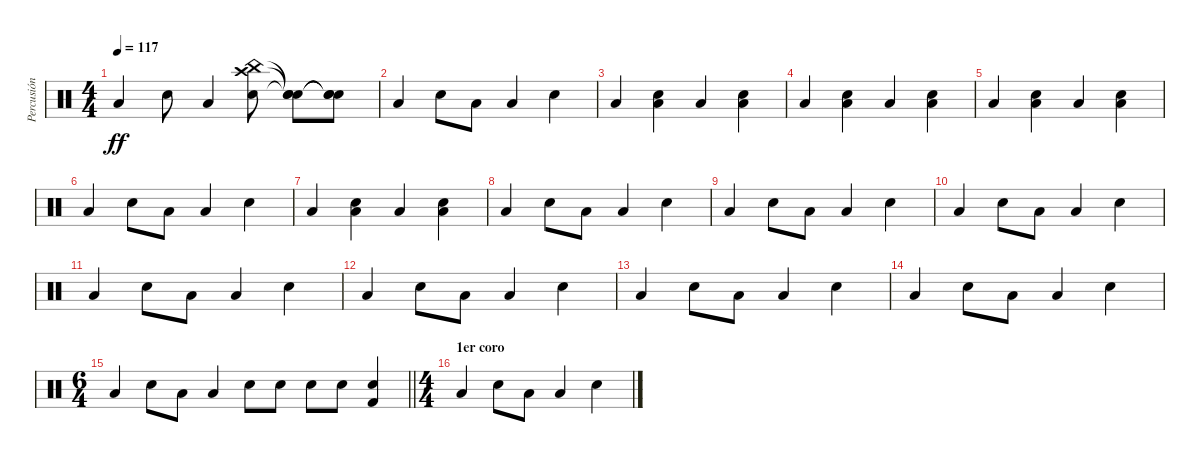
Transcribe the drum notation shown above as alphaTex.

\track ("Percusión" "Percusión") {instrument percussion}
\staff {score}
\articulation defaults
\ts (4 4)
\tempo 117
\clef neutral
\ks c "Low Floor Tom (hit)".4{dy ff} "Snare (hit) 2".8 "Low Floor Tom (hit)".4
("Snare (hit) 2" "Crash high (hit)" "China (hit)").8 ("Snare (hit)"{t} "Snare (hit)"{t} "Snare (hit)"{t}).8 ("Snare (hit)"{t} "Snare (hit)"{t} "Snare (hit)"{t}).8 |
"Low Floor Tom (hit)".4 "Snare (hit) 2".8 "Low Floor Tom (hit)".8 "Low Floor Tom (hit)".4 "Snare (hit) 2".4 |
"Low Floor Tom (hit)".4 ("Snare (hit) 2" "Low Floor Tom (hit)").4 "Low Floor Tom (hit)".4 ("Snare (hit) 2" "Low Floor Tom (hit)").4 |
"Low Floor Tom (hit)".4 ("Snare (hit) 2" "Low Floor Tom (hit)").4 "Low Floor Tom (hit)".4 ("Snare (hit) 2" "Low Floor Tom (hit)").4 |
"Low Floor Tom (hit)".4 ("Snare (hit) 2" "Low Floor Tom (hit)").4 "Low Floor Tom (hit)".4 ("Snare (hit) 2" "Low Floor Tom (hit)").4 |
"Low Floor Tom (hit)".4 "Snare (hit) 2".8 "Low Floor Tom (hit)".8 "Low Floor Tom (hit)".4 "Snare (hit) 2".4 |
"Low Floor Tom (hit)".4 ("Snare (hit) 2" "Low Floor Tom (hit)").4 "Low Floor Tom (hit)".4 ("Snare (hit) 2" "Low Floor Tom (hit)").4 |
"Low Floor Tom (hit)".4 "Snare (hit) 2".8 "Low Floor Tom (hit)".8 "Low Floor Tom (hit)".4 "Snare (hit) 2".4 |
"Low Floor Tom (hit)".4 "Snare (hit) 2".8 "Low Floor Tom (hit)".8 "Low Floor Tom (hit)".4 "Snare (hit) 2".4 |
"Low Floor Tom (hit)".4 "Snare (hit) 2".8 "Low Floor Tom (hit)".8 "Low Floor Tom (hit)".4 "Snare (hit) 2".4 |
"Low Floor Tom (hit)".4 "Snare (hit) 2".8 "Low Floor Tom (hit)".8 "Low Floor Tom (hit)".4 "Snare (hit) 2".4 |
"Low Floor Tom (hit)".4 "Snare (hit) 2".8 "Low Floor Tom (hit)".8 "Low Floor Tom (hit)".4 "Snare (hit) 2".4 |
"Low Floor Tom (hit)".4 "Snare (hit) 2".8 "Low Floor Tom (hit)".8 "Low Floor Tom (hit)".4 "Snare (hit) 2".4 |
"Low Floor Tom (hit)".4 "Snare (hit) 2".8 "Low Floor Tom (hit)".8 "Low Floor Tom (hit)".4 "Snare (hit) 2".4 |
\ts (6 4)
\barLineRight lightlight "Low Floor Tom (hit)".4 "Snare (hit) 2".8 "Low Floor Tom (hit)".8 "Low Floor Tom (hit)".4 "Snare (hit) 2".8 "Snare (hit) 2".8 "Snare (hit) 2".8 "Snare (hit) 2".8
("Kick (hit) 2" "Electric Snare (hit)").4 |
\ts (4 4)
\section ("" "1er coro")
"Low Floor Tom (hit)".4 "Snare (hit) 2".8 "Low Floor Tom (hit)".8 "Low Floor Tom (hit)".4 "Snare (hit) 2".4
